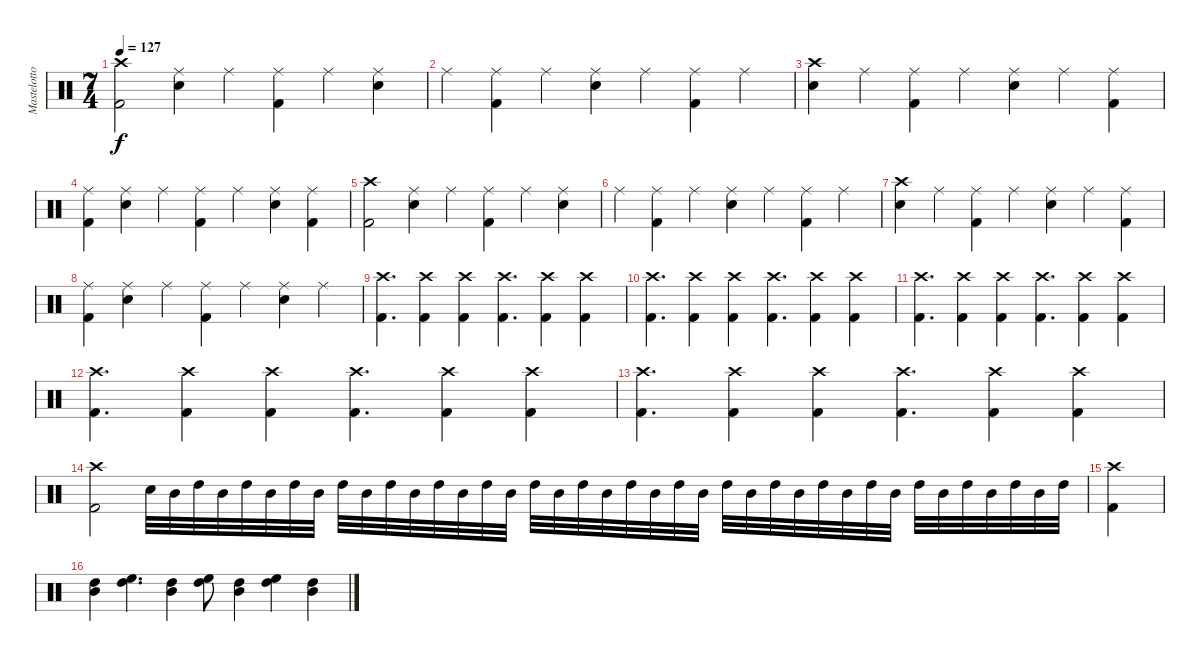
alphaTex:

\track ("Mastelotto" "Mastelotto") {instrument percussion}
\staff {score}
\articulation defaults
\ts (7 4)
\tempo 127
\clef neutral
\ks c
("Crash high (hit)" "Kick (hit) 2").2{dy f} ("Ride (middle)" "Electric Snare (hit)").4 "Ride (middle)".4 ("Ride (middle)" "Kick (hit) 2").4 "Ride (middle)".4 ("Ride (middle)" "Electric Snare (hit)").4 |
"Ride (middle)".4 ("Ride (middle)" "Kick (hit) 2").4 "Ride (middle)".4 ("Ride (middle)" "Electric Snare (hit)").4 "Ride (middle)".4 ("Ride (middle)" "Kick (hit) 2").4 "Ride (middle)".4 |
("Crash high (hit)" "Electric Snare (hit)").4 "Ride (middle)".4 ("Ride (middle)" "Kick (hit) 2").4 "Ride (middle)".4 ("Ride (middle)" "Electric Snare (hit)").4 "Ride (middle)".4 ("Ride (middle)" "Kick (hit) 2").4 |
("Ride (middle)" "Kick (hit) 2").4 ("Ride (middle)" "Electric Snare (hit)").4 "Ride (middle)".4 ("Ride (middle)" "Kick (hit) 2").4 "Ride (middle)".4 ("Ride (middle)" "Electric Snare (hit)").4 ("Ride (middle)" "Kick (hit) 2").4 |
("Crash high (hit)" "Kick (hit) 2").2 ("Ride (middle)" "Electric Snare (hit)").4 "Ride (middle)".4 ("Ride (middle)" "Kick (hit) 2").4 "Ride (middle)".4 ("Ride (middle)" "Electric Snare (hit)").4 |
"Ride (middle)".4 ("Ride (middle)" "Kick (hit) 2").4 "Ride (middle)".4 ("Ride (middle)" "Electric Snare (hit)").4 "Ride (middle)".4 ("Ride (middle)" "Kick (hit) 2").4 "Ride (middle)".4 |
("Crash high (hit)" "Electric Snare (hit)").4 "Ride (middle)".4 ("Ride (middle)" "Kick (hit) 2").4 "Ride (middle)".4 ("Ride (middle)" "Electric Snare (hit)").4 "Ride (middle)".4 ("Ride (middle)" "Kick (hit) 2").4 |
("Ride (middle)" "Kick (hit) 2").4 ("Ride (middle)" "Electric Snare (hit)").4 "Ride (middle)".4 ("Ride (middle)" "Kick (hit) 2").4 "Ride (middle)".4 ("Ride (middle)" "Electric Snare (hit)").4 "Ride (middle)".4 |
("Crash high (hit)" "Kick (hit) 2").4{d} ("Crash high (hit)" "Kick (hit) 2").4 ("Crash high (hit)" "Kick (hit) 2").4 ("Crash high (hit)" "Kick (hit) 2").4{d} ("Crash high (hit)" "Kick (hit) 2").4 ("Crash high (hit)" "Kick (hit) 2").4 |
("Crash high (hit)" "Kick (hit) 2").4{d} ("Crash high (hit)" "Kick (hit) 2").4 ("Crash high (hit)" "Kick (hit) 2").4 ("Crash high (hit)" "Kick (hit) 2").4{d} ("Crash high (hit)" "Kick (hit) 2").4 ("Crash high (hit)" "Kick (hit) 2").4 |
("Crash high (hit)" "Kick (hit) 2").4{d} ("Crash high (hit)" "Kick (hit) 2").4 ("Crash high (hit)" "Kick (hit) 2").4 ("Crash high (hit)" "Kick (hit) 2").4{d} ("Crash high (hit)" "Kick (hit) 2").4 ("Crash high (hit)" "Kick (hit) 2").4 |
("Crash high (hit)" "Kick (hit) 2").4{d} ("Crash high (hit)" "Kick (hit) 2").4 ("Crash high (hit)" "Kick (hit) 2").4 ("Crash high (hit)" "Kick (hit) 2").4{d} ("Crash high (hit)" "Kick (hit) 2").4 ("Crash high (hit)" "Kick (hit) 2").4 |
("Crash high (hit)" "Kick (hit) 2").4{d} ("Crash high (hit)" "Kick (hit) 2").4 ("Crash high (hit)" "Kick (hit) 2").4 ("Crash high (hit)" "Kick (hit) 2").4{d} ("Crash high (hit)" "Kick (hit) 2").4 ("Crash high (hit)" "Kick (hit) 2").4 |
("Crash high (hit)" "Kick (hit) 2").2 "Electric Snare (hit)".32 "Mid Tom (hit)".32 "High Tom (hit)".32 "Mid Tom (hit)".32 "High Tom (hit)".32 "Mid Tom (hit)".32 "High Tom (hit)".32 "Mid Tom (hit)".32 "High Tom (hit)".32 "Mid Tom (hit)".32 "High Tom (hit)".32 "Mid Tom (hit)".32 "High Tom (hit)".32 "Mid Tom (hit)".32 "High Tom (hit)".32 "Mid Tom (hit)".32 "High Tom (hit)".32 "Mid Tom (hit)".32 "High Tom (hit)".32 "Mid Tom (hit)".32 "High Tom (hit)".32 "Mid Tom (hit)".32 "High Tom (hit)".32 "Mid Tom (hit)".32 "High Tom (hit)".32 "Mid Tom (hit)".32 "High Tom (hit)".32 "Mid Tom (hit)".32 "High Tom (hit)".32 "Mid Tom (hit)".32 "High Tom (hit)".32 "Mid Tom (hit)".32 "High Tom (hit)".32 "Mid Tom (hit)".32 "High Tom (hit)".32 "Mid Tom (hit)".32 "High Tom (hit)".32 "Mid Tom (hit)".32 "High Tom (hit)".32 |
("Crash high (hit)" "Kick (hit) 2").4 |
("High Tom (hit)" "Mid Tom (hit)").4 ("High Floor Tom (hit)" "High Tom (hit)").4{d} ("High Tom (hit)" "Mid Tom (hit)").4 ("High Floor Tom (hit)" "High Tom (hit)").8 ("High Tom (hit)" "Mid Tom (hit)").4 ("High Floor Tom (hit)" "High Tom (hit)").4 ("High Tom (hit)" "Mid Tom (hit)").4
